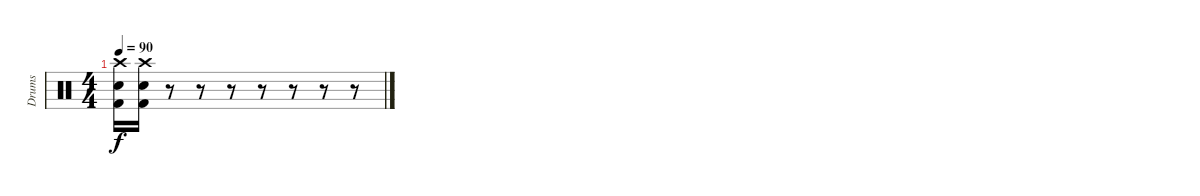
\track ("Drums" "Drums") {instrument percussion}
\staff {score}
\articulation defaults
\ts (4 4)
\tempo 90
\clef neutral
\ks c
("Crash high (hit)" "Electric Snare (hit)" "Kick (hit) 2").16{dy f} ("Crash high (hit)" "Electric Snare (hit)" "Kick (hit) 2").16 r.8 r.8 r.8 r.8 r.8 r.8 r.8
